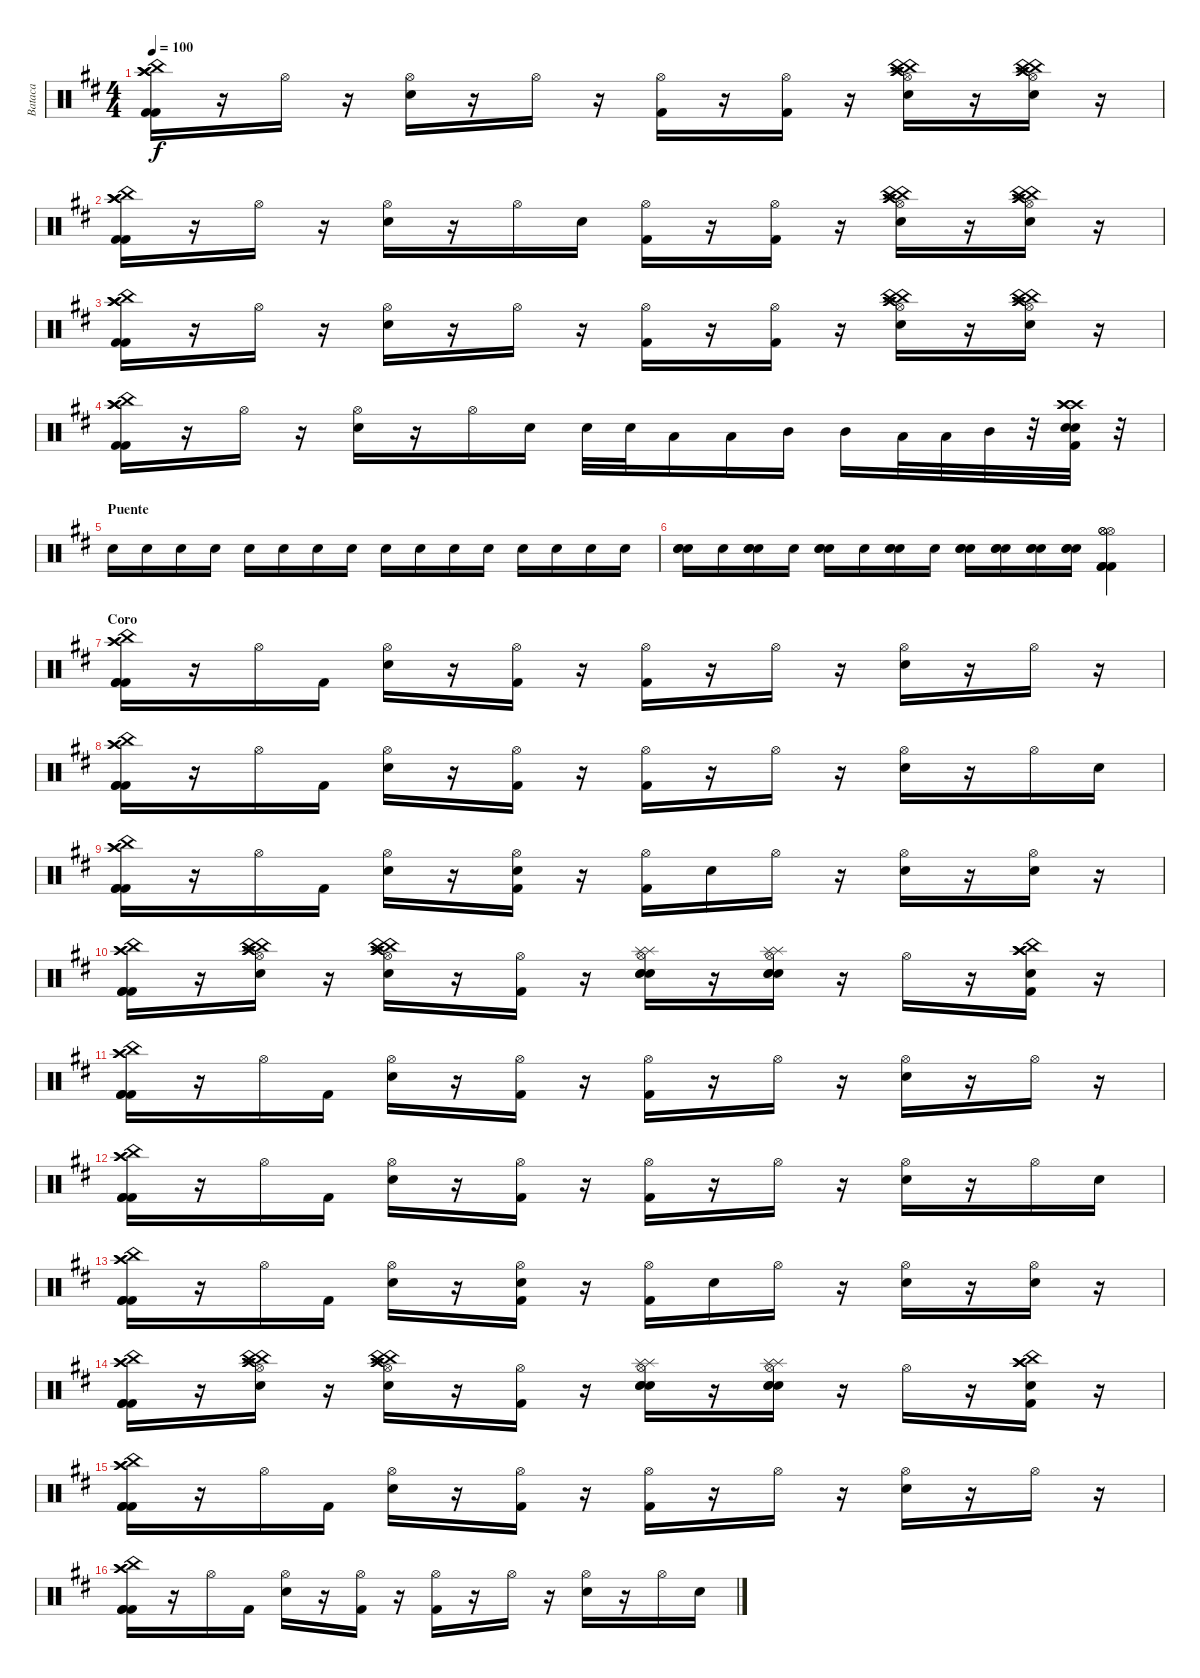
\track ("Bataca" "Bataca") {instrument percussion}
\staff {score}
\articulation defaults
\ts (4 4)
\tempo 100
\clef neutral
\ks d
("Crash high (hit)" "China (hit)" "Crash high (hit)" "Crash high (hit)" "Kick (hit) 2" "Kick (hit) 2").16{dy f} r.16 "Hi-Hat (open)".16 r.16 ("Hi-Hat (open)" "Snare (hit) 2").16 r.16 "Hi-Hat (open)".16 r.16 ("Hi-Hat (open)" "Kick (hit) 2").16 r.16 ("Hi-Hat (open)" "Kick (hit) 2").16 r.16 ("Hi-Hat (open)" "Snare (hit) 2" "Crash high (hit)" "Crash high (hit)" "China (hit)" "China (hit)").16 r.16 ("Hi-Hat (open)" "Snare (hit) 2" "Crash high (hit)" "Crash high (hit)" "China (hit)" "China (hit)").16 r.16 |
("Crash high (hit)" "China (hit)" "Crash high (hit)" "Crash high (hit)" "Kick (hit) 2" "Kick (hit) 2").16 r.16 "Hi-Hat (open)".16 r.16 ("Hi-Hat (open)" "Snare (hit) 2").16 r.16 "Hi-Hat (open)".16 "Snare (hit) 2".16 ("Hi-Hat (open)" "Kick (hit) 2").16 r.16 ("Hi-Hat (open)" "Kick (hit) 2").16 r.16 ("Hi-Hat (open)" "Snare (hit) 2" "Crash high (hit)" "Crash high (hit)" "China (hit)" "China (hit)").16 r.16 ("Hi-Hat (open)" "Snare (hit) 2" "Crash high (hit)" "Crash high (hit)" "China (hit)" "China (hit)").16 r.16 |
("Crash high (hit)" "China (hit)" "Crash high (hit)" "Crash high (hit)" "Kick (hit) 2" "Kick (hit) 2").16 r.16 "Hi-Hat (open)".16 r.16 ("Hi-Hat (open)" "Snare (hit) 2").16 r.16 "Hi-Hat (open)".16 r.16 ("Hi-Hat (open)" "Kick (hit) 2").16 r.16 ("Hi-Hat (open)" "Kick (hit) 2").16 r.16 ("Hi-Hat (open)" "Snare (hit) 2" "Crash high (hit)" "Crash high (hit)" "China (hit)" "China (hit)").16 r.16 ("Hi-Hat (open)" "Snare (hit) 2" "Crash high (hit)" "Crash high (hit)" "China (hit)" "China (hit)").16 r.16 |
("Crash high (hit)" "China (hit)" "Crash high (hit)" "Crash high (hit)" "Kick (hit) 2" "Kick (hit) 2").16 r.16 "Hi-Hat (open)".16 r.16 ("Hi-Hat (open)" "Snare (hit) 2").16 r.16 "Hi-Hat (open)".16 "Snare (hit) 2".16 "Snare (hit) 2".32 "Snare (hit) 2".32 "Low Floor Tom (hit)".16 "Low Floor Tom (hit)".16 "Mid Tom (hit)".16 "Mid Tom (hit)".16 "Low Floor Tom (hit)".32 "Low Floor Tom (hit)".32 "Mid Tom (hit)".32 r.32 ("Snare (hit) 2" "Crash high (hit)" "Crash high (hit)" "Snare (hit) 2" "Kick (hit) 2" "Crash high (hit)").32 r.32 |
\section ("" "Puente")
"Snare (hit) 2".16{balance 16} "Snare (hit) 2".16 "Snare (hit) 2".16 "Snare (hit) 2".16 "Snare (hit) 2".16 "Snare (hit) 2".16 "Snare (hit) 2".16 "Snare (hit) 2".16 "Snare (hit) 2".16 "Snare (hit) 2".16 "Snare (hit) 2".16 "Snare (hit) 2".16 "Snare (hit) 2".16 "Snare (hit) 2".16 "Snare (hit) 2".16 "Snare (hit) 2".16 |
("Snare (hit) 2" "Snare (hit) 2" "Snare (hit) 2").16 "Snare (hit) 2".16 ("Snare (hit) 2" "Snare (hit) 2" "Snare (hit) 2").16 "Snare (hit) 2".16 ("Snare (hit) 2" "Snare (hit) 2" "Snare (hit) 2").16 "Snare (hit) 2".16 ("Snare (hit) 2" "Snare (hit) 2" "Snare (hit) 2").16 "Snare (hit) 2".16 ("Snare (hit) 2" "Snare (hit) 2" "Snare (hit) 2").16 ("Snare (hit) 2" "Snare (hit) 2" "Snare (hit) 2").16 ("Snare (hit) 2" "Snare (hit) 2" "Snare (hit) 2").16 ("Snare (hit) 2" "Snare (hit) 2" "Snare (hit) 2").16 ("Hi-Hat (open)" "Hi-Hat (open)" "Hi-Hat (open)" "Kick (hit) 2" "Kick (hit) 2" "Kick (hit) 2").4 |
\section ("" "Coro")
("Crash high (hit)" "Crash high (hit)" "China (hit)" "Kick (hit) 2" "Kick (hit) 2" "Kick (hit) 2").16 r.16{balance 8} "Hi-Hat (open)".16 "Kick (hit) 2".16 ("Hi-Hat (open)" "Snare (hit) 2").16 r.16 ("Hi-Hat (open)" "Kick (hit) 2").16 r.16 ("Hi-Hat (open)" "Kick (hit) 2").16 r.16 "Hi-Hat (open)".16 r.16 ("Hi-Hat (open)" "Snare (hit) 2").16 r.16 "Hi-Hat (open)".16 r.16 |
("Crash high (hit)" "Crash high (hit)" "China (hit)" "Kick (hit) 2" "Kick (hit) 2" "Kick (hit) 2").16 r.16 "Hi-Hat (open)".16 "Kick (hit) 2".16 ("Hi-Hat (open)" "Snare (hit) 2").16 r.16 ("Hi-Hat (open)" "Kick (hit) 2").16 r.16 ("Hi-Hat (open)" "Kick (hit) 2").16 r.16 "Hi-Hat (open)".16 r.16 ("Hi-Hat (open)" "Snare (hit) 2").16 r.16 "Hi-Hat (open)".16 "Snare (hit) 2".16 |
("Crash high (hit)" "Crash high (hit)" "China (hit)" "Kick (hit) 2" "Kick (hit) 2" "Kick (hit) 2").16 r.16 "Hi-Hat (open)".16 "Kick (hit) 2".16 ("Hi-Hat (open)" "Snare (hit) 2").16 r.16 ("Hi-Hat (open)" "Snare (hit) 2" "Kick (hit) 2").16 r.16 ("Hi-Hat (open)" "Kick (hit) 2").16 "Snare (hit) 2".16 "Hi-Hat (open)".16 r.16 ("Hi-Hat (open)" "Snare (hit) 2").16 r.16 ("Hi-Hat (open)" "Snare (hit) 2").16 r.16 |
("Crash high (hit)" "Crash high (hit)" "China (hit)" "Kick (hit) 2" "Kick (hit) 2" "Kick (hit) 2").16 r.16 ("Hi-Hat (open)" "Snare (hit) 2" "Crash high (hit)" "Crash high (hit)" "China (hit)" "China (hit)").16 r.16 ("Hi-Hat (open)" "Snare (hit) 2" "Crash high (hit)" "Crash high (hit)" "China (hit)" "China (hit)").16 r.16 ("Hi-Hat (open)" "Kick (hit) 2").16 r.16 ("Hi-Hat (open)" "Snare (hit) 2" "Snare (hit)" "Snare (hit)" "Splash (hit)" "Splash (hit)").16 r.16 ("Hi-Hat (open)" "Snare (hit) 2" "Snare (hit)" "Snare (hit)" "Splash (hit)" "Splash (hit)").16 r.16 "Hi-Hat (open)".16 r.16 ("Kick (hit) 2" "Snare (hit) 2" "Crash high (hit)" "Crash high (hit)" "China (hit)" "Crash high (hit)").16 r.16 |
("Crash high (hit)" "Crash high (hit)" "China (hit)" "Kick (hit) 2" "Kick (hit) 2" "Kick (hit) 2").16 r.16{balance 8} "Hi-Hat (open)".16 "Kick (hit) 2".16 ("Hi-Hat (open)" "Snare (hit) 2").16 r.16 ("Hi-Hat (open)" "Kick (hit) 2").16 r.16 ("Hi-Hat (open)" "Kick (hit) 2").16 r.16 "Hi-Hat (open)".16 r.16 ("Hi-Hat (open)" "Snare (hit) 2").16 r.16 "Hi-Hat (open)".16 r.16 |
("Crash high (hit)" "Crash high (hit)" "China (hit)" "Kick (hit) 2" "Kick (hit) 2" "Kick (hit) 2").16 r.16 "Hi-Hat (open)".16 "Kick (hit) 2".16 ("Hi-Hat (open)" "Snare (hit) 2").16 r.16 ("Hi-Hat (open)" "Kick (hit) 2").16 r.16 ("Hi-Hat (open)" "Kick (hit) 2").16 r.16 "Hi-Hat (open)".16 r.16 ("Hi-Hat (open)" "Snare (hit) 2").16 r.16 "Hi-Hat (open)".16 "Snare (hit) 2".16 |
("Crash high (hit)" "Crash high (hit)" "China (hit)" "Kick (hit) 2" "Kick (hit) 2" "Kick (hit) 2").16 r.16 "Hi-Hat (open)".16 "Kick (hit) 2".16 ("Hi-Hat (open)" "Snare (hit) 2").16 r.16 ("Hi-Hat (open)" "Snare (hit) 2" "Kick (hit) 2").16 r.16 ("Hi-Hat (open)" "Kick (hit) 2").16 "Snare (hit) 2".16 "Hi-Hat (open)".16 r.16 ("Hi-Hat (open)" "Snare (hit) 2").16 r.16 ("Hi-Hat (open)" "Snare (hit) 2").16 r.16 |
("Crash high (hit)" "Crash high (hit)" "China (hit)" "Kick (hit) 2" "Kick (hit) 2" "Kick (hit) 2").16 r.16 ("Hi-Hat (open)" "Snare (hit) 2" "Crash high (hit)" "Crash high (hit)" "China (hit)" "China (hit)").16 r.16 ("Hi-Hat (open)" "Snare (hit) 2" "Crash high (hit)" "Crash high (hit)" "China (hit)" "China (hit)").16 r.16 ("Hi-Hat (open)" "Kick (hit) 2").16 r.16 ("Hi-Hat (open)" "Snare (hit) 2" "Snare (hit)" "Snare (hit)" "Splash (hit)" "Splash (hit)").16 r.16 ("Hi-Hat (open)" "Snare (hit) 2" "Snare (hit)" "Snare (hit)" "Splash (hit)" "Splash (hit)").16 r.16 "Hi-Hat (open)".16 r.16 ("Kick (hit) 2" "Snare (hit) 2" "Crash high (hit)" "Crash high (hit)" "China (hit)" "Crash high (hit)").16 r.16 |
("Crash high (hit)" "Crash high (hit)" "China (hit)" "Kick (hit) 2" "Kick (hit) 2" "Kick (hit) 2").16 r.16 "Hi-Hat (open)".16 "Kick (hit) 2".16 ("Hi-Hat (open)" "Snare (hit) 2").16 r.16 ("Hi-Hat (open)" "Kick (hit) 2").16 r.16 ("Hi-Hat (open)" "Kick (hit) 2").16 r.16 "Hi-Hat (open)".16 r.16 ("Hi-Hat (open)" "Snare (hit) 2").16 r.16 "Hi-Hat (open)".16 r.16 |
("Crash high (hit)" "Crash high (hit)" "China (hit)" "Kick (hit) 2" "Kick (hit) 2" "Kick (hit) 2").16 r.16 "Hi-Hat (open)".16 "Kick (hit) 2".16 ("Hi-Hat (open)" "Snare (hit) 2").16 r.16 ("Hi-Hat (open)" "Kick (hit) 2").16 r.16 ("Hi-Hat (open)" "Kick (hit) 2").16 r.16 "Hi-Hat (open)".16 r.16 ("Hi-Hat (open)" "Snare (hit) 2").16 r.16 "Hi-Hat (open)".16 "Snare (hit) 2".16
